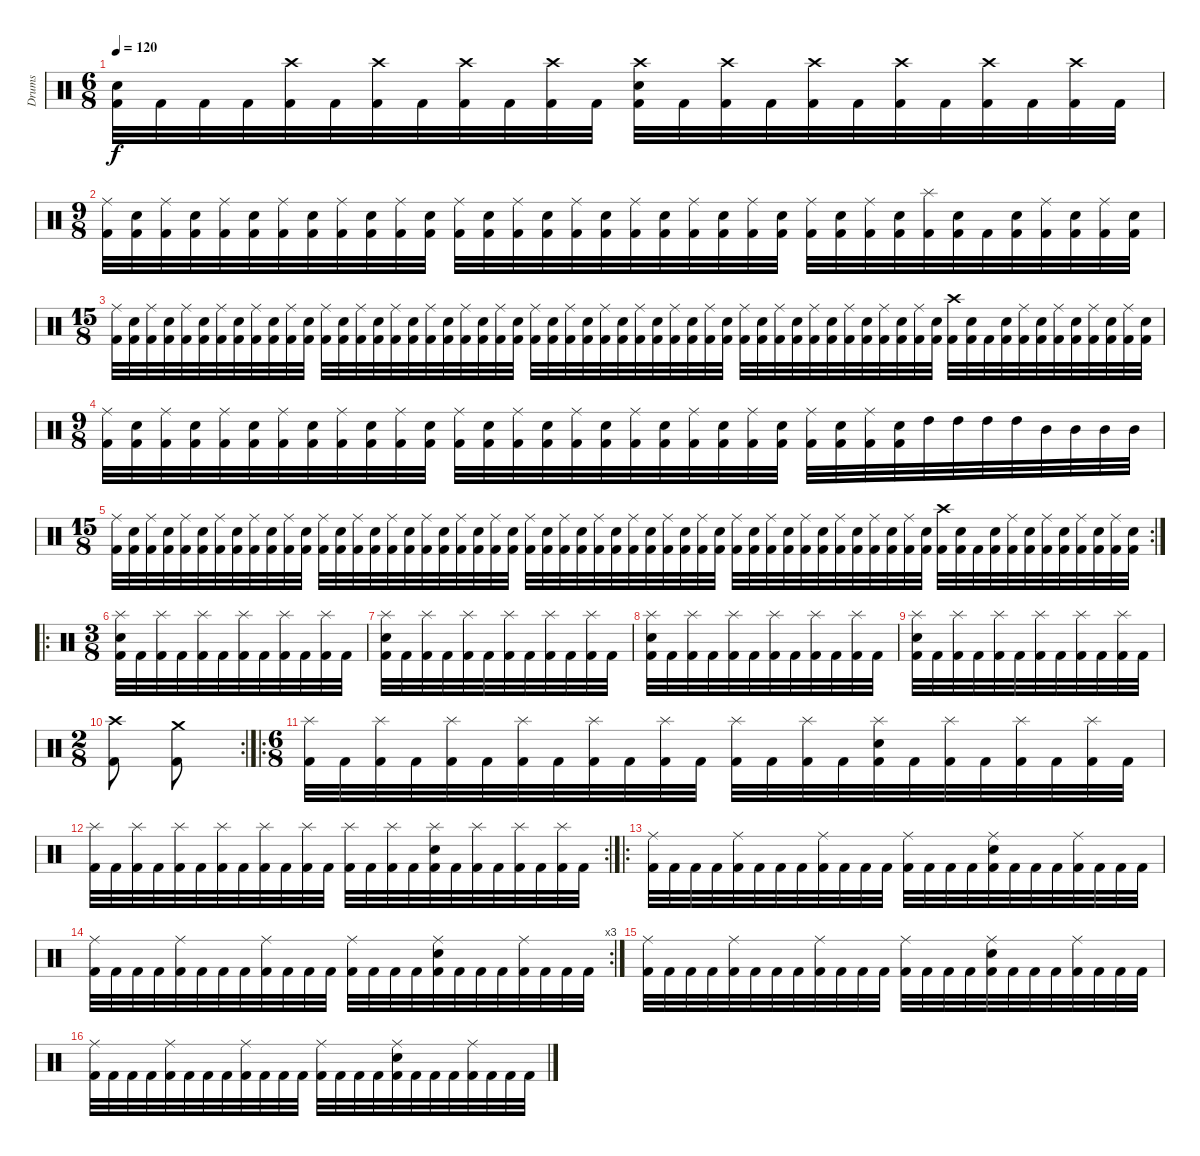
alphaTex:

\track ("Drums" "Drums") {instrument percussion}
\staff {score}
\articulation defaults
\ts (6 8)
\tempo 120
\clef neutral
\ks c
("Snare (hit) 2" "Kick (hit) 2").32{dy f} "Kick (hit) 2".32 "Kick (hit) 2".32 "Kick (hit) 2".32 ("Crash high (hit)" "Kick (hit) 2").32 "Kick (hit) 2".32 ("Crash high (hit)" "Kick (hit) 2").32 "Kick (hit) 2".32 ("Crash high (hit)" "Kick (hit) 2").32 "Kick (hit) 2".32 ("Crash high (hit)" "Kick (hit) 2").32 "Kick (hit) 2".32 ("Crash high (hit)" "Snare (hit) 2" "Kick (hit) 2").32 "Kick (hit) 2".32 ("Crash high (hit)" "Kick (hit) 2").32 "Kick (hit) 2".32 ("Crash high (hit)" "Kick (hit) 2").32 "Kick (hit) 2".32 ("Crash high (hit)" "Kick (hit) 2").32 "Kick (hit) 2".32 ("Crash high (hit)" "Kick (hit) 2").32 "Kick (hit) 2".32 ("Crash high (hit)" "Kick (hit) 2").32 "Kick (hit) 2".32 |
\ts (9 8)
("Ride (middle)" "Kick (hit) 2").32 ("Snare (hit) 2" "Kick (hit) 2").32 ("Ride (middle)" "Kick (hit) 2").32 ("Snare (hit) 2" "Kick (hit) 2").32 ("Ride (middle)" "Kick (hit) 2").32 ("Snare (hit) 2" "Kick (hit) 2").32 ("Ride (middle)" "Kick (hit) 2").32 ("Snare (hit) 2" "Kick (hit) 2").32 ("Ride (middle)" "Kick (hit) 2").32 ("Snare (hit) 2" "Kick (hit) 2").32 ("Ride (middle)" "Kick (hit) 2").32 ("Snare (hit) 2" "Kick (hit) 2").32 ("Ride (middle)" "Kick (hit) 2").32 ("Snare (hit) 2" "Kick (hit) 2").32 ("Ride (middle)" "Kick (hit) 2").32 ("Snare (hit) 2" "Kick (hit) 2").32 ("Ride (middle)" "Kick (hit) 2").32 ("Snare (hit) 2" "Kick (hit) 2").32 ("Ride (middle)" "Kick (hit) 2").32 ("Snare (hit) 2" "Kick (hit) 2").32 ("Ride (middle)" "Kick (hit) 2").32 ("Snare (hit) 2" "Kick (hit) 2").32 ("Ride (middle)" "Kick (hit) 2").32 ("Snare (hit) 2" "Kick (hit) 2").32 ("Ride (middle)" "Kick (hit) 2").32 ("Snare (hit) 2" "Kick (hit) 2").32 ("Ride (middle)" "Kick (hit) 2").32 ("Snare (hit) 2" "Kick (hit) 2").32 ("Splash (hit)" "Kick (hit) 2").32 ("Snare (hit) 2" "Kick (hit) 2").32 "Kick (hit) 2".32 ("Snare (hit) 2" "Kick (hit) 2").32 ("Ride (middle)" "Kick (hit) 2").32 ("Snare (hit) 2" "Kick (hit) 2").32 ("Ride (middle)" "Kick (hit) 2").32 ("Snare (hit) 2" "Kick (hit) 2").32 |
\ts (15 8)
("Ride (middle)" "Kick (hit) 2").32 ("Snare (hit) 2" "Kick (hit) 2").32 ("Ride (middle)" "Kick (hit) 2").32 ("Snare (hit) 2" "Kick (hit) 2").32 ("Ride (middle)" "Kick (hit) 2").32 ("Snare (hit) 2" "Kick (hit) 2").32 ("Ride (middle)" "Kick (hit) 2").32 ("Snare (hit) 2" "Kick (hit) 2").32 ("Ride (middle)" "Kick (hit) 2").32 ("Snare (hit) 2" "Kick (hit) 2").32 ("Ride (middle)" "Kick (hit) 2").32 ("Snare (hit) 2" "Kick (hit) 2").32 ("Ride (middle)" "Kick (hit) 2").32 ("Snare (hit) 2" "Kick (hit) 2").32 ("Ride (middle)" "Kick (hit) 2").32 ("Snare (hit) 2" "Kick (hit) 2").32 ("Ride (middle)" "Kick (hit) 2").32 ("Snare (hit) 2" "Kick (hit) 2").32 ("Ride (middle)" "Kick (hit) 2").32 ("Snare (hit) 2" "Kick (hit) 2").32 ("Ride (middle)" "Kick (hit) 2").32 ("Snare (hit) 2" "Kick (hit) 2").32 ("Ride (middle)" "Kick (hit) 2").32 ("Snare (hit) 2" "Kick (hit) 2").32 ("Ride (middle)" "Kick (hit) 2").32 ("Snare (hit) 2" "Kick (hit) 2").32 ("Ride (middle)" "Kick (hit) 2").32 ("Snare (hit) 2" "Kick (hit) 2").32 ("Ride (middle)" "Kick (hit) 2").32 ("Snare (hit) 2" "Kick (hit) 2").32 ("Ride (middle)" "Kick (hit) 2").32 ("Snare (hit) 2" "Kick (hit) 2").32 ("Ride (middle)" "Kick (hit) 2").32 ("Snare (hit) 2" "Kick (hit) 2").32 ("Ride (middle)" "Kick (hit) 2").32 ("Snare (hit) 2" "Kick (hit) 2").32 ("Ride (middle)" "Kick (hit) 2").32 ("Snare (hit) 2" "Kick (hit) 2").32 ("Ride (middle)" "Kick (hit) 2").32 ("Snare (hit) 2" "Kick (hit) 2").32 ("Ride (middle)" "Kick (hit) 2").32 ("Snare (hit) 2" "Kick (hit) 2").32 ("Ride (middle)" "Kick (hit) 2").32 ("Snare (hit) 2" "Kick (hit) 2").32 ("Ride (middle)" "Kick (hit) 2").32 ("Snare (hit) 2" "Kick (hit) 2").32 ("Ride (middle)" "Kick (hit) 2").32 ("Snare (hit) 2" "Kick (hit) 2").32 ("Crash high (hit)" "Kick (hit) 2").32 ("Snare (hit) 2" "Kick (hit) 2").32 "Kick (hit) 2".32 ("Snare (hit) 2" "Kick (hit) 2").32 ("Ride (middle)" "Kick (hit) 2").32 ("Snare (hit) 2" "Kick (hit) 2").32 ("Ride (middle)" "Kick (hit) 2").32 ("Snare (hit) 2" "Kick (hit) 2").32 ("Ride (middle)" "Kick (hit) 2").32 ("Snare (hit) 2" "Kick (hit) 2").32 ("Ride (middle)" "Kick (hit) 2").32 ("Snare (hit) 2" "Kick (hit) 2").32 |
\ts (9 8)
("Ride (middle)" "Kick (hit) 2").32 ("Snare (hit) 2" "Kick (hit) 2").32 ("Ride (middle)" "Kick (hit) 2").32 ("Snare (hit) 2" "Kick (hit) 2").32 ("Ride (middle)" "Kick (hit) 2").32 ("Snare (hit) 2" "Kick (hit) 2").32 ("Ride (middle)" "Kick (hit) 2").32 ("Snare (hit) 2" "Kick (hit) 2").32 ("Ride (middle)" "Kick (hit) 2").32 ("Snare (hit) 2" "Kick (hit) 2").32 ("Ride (middle)" "Kick (hit) 2").32 ("Snare (hit) 2" "Kick (hit) 2").32 ("Ride (middle)" "Kick (hit) 2").32 ("Snare (hit) 2" "Kick (hit) 2").32 ("Ride (middle)" "Kick (hit) 2").32 ("Snare (hit) 2" "Kick (hit) 2").32 ("Ride (middle)" "Kick (hit) 2").32 ("Snare (hit) 2" "Kick (hit) 2").32 ("Ride (middle)" "Kick (hit) 2").32 ("Snare (hit) 2" "Kick (hit) 2").32 ("Ride (middle)" "Kick (hit) 2").32 ("Snare (hit) 2" "Kick (hit) 2").32 ("Ride (middle)" "Kick (hit) 2").32 ("Snare (hit) 2" "Kick (hit) 2").32 ("Ride (middle)" "Kick (hit) 2").32 ("Snare (hit) 2" "Kick (hit) 2").32 ("Ride (middle)" "Kick (hit) 2").32 ("Snare (hit) 2" "Kick (hit) 2").32 "High Tom (hit)".32 "High Tom (hit)".32 "High Tom (hit)".32 "High Tom (hit)".32 "Mid Tom (hit)".32 "Mid Tom (hit)".32 "Mid Tom (hit)".32 "Mid Tom (hit)".32 |
\rc 2
\ts (15 8)
("Ride (middle)" "Kick (hit) 2").32 ("Snare (hit) 2" "Kick (hit) 2").32 ("Ride (middle)" "Kick (hit) 2").32 ("Snare (hit) 2" "Kick (hit) 2").32 ("Ride (middle)" "Kick (hit) 2").32 ("Snare (hit) 2" "Kick (hit) 2").32 ("Ride (middle)" "Kick (hit) 2").32 ("Snare (hit) 2" "Kick (hit) 2").32 ("Ride (middle)" "Kick (hit) 2").32 ("Snare (hit) 2" "Kick (hit) 2").32 ("Ride (middle)" "Kick (hit) 2").32 ("Snare (hit) 2" "Kick (hit) 2").32 ("Ride (middle)" "Kick (hit) 2").32 ("Snare (hit) 2" "Kick (hit) 2").32 ("Ride (middle)" "Kick (hit) 2").32 ("Snare (hit) 2" "Kick (hit) 2").32 ("Ride (middle)" "Kick (hit) 2").32 ("Snare (hit) 2" "Kick (hit) 2").32 ("Ride (middle)" "Kick (hit) 2").32 ("Snare (hit) 2" "Kick (hit) 2").32 ("Ride (middle)" "Kick (hit) 2").32 ("Snare (hit) 2" "Kick (hit) 2").32 ("Ride (middle)" "Kick (hit) 2").32 ("Snare (hit) 2" "Kick (hit) 2").32 ("Ride (middle)" "Kick (hit) 2").32 ("Snare (hit) 2" "Kick (hit) 2").32 ("Ride (middle)" "Kick (hit) 2").32 ("Snare (hit) 2" "Kick (hit) 2").32 ("Ride (middle)" "Kick (hit) 2").32 ("Snare (hit) 2" "Kick (hit) 2").32 ("Ride (middle)" "Kick (hit) 2").32 ("Snare (hit) 2" "Kick (hit) 2").32 ("Ride (middle)" "Kick (hit) 2").32 ("Snare (hit) 2" "Kick (hit) 2").32 ("Ride (middle)" "Kick (hit) 2").32 ("Snare (hit) 2" "Kick (hit) 2").32 ("Ride (middle)" "Kick (hit) 2").32 ("Snare (hit) 2" "Kick (hit) 2").32 ("Ride (middle)" "Kick (hit) 2").32 ("Snare (hit) 2" "Kick (hit) 2").32 ("Ride (middle)" "Kick (hit) 2").32 ("Snare (hit) 2" "Kick (hit) 2").32 ("Ride (middle)" "Kick (hit) 2").32 ("Snare (hit) 2" "Kick (hit) 2").32 ("Ride (middle)" "Kick (hit) 2").32 ("Snare (hit) 2" "Kick (hit) 2").32 ("Ride (middle)" "Kick (hit) 2").32 ("Snare (hit) 2" "Kick (hit) 2").32 ("Crash high (hit)" "Kick (hit) 2").32 ("Snare (hit) 2" "Kick (hit) 2").32 "Kick (hit) 2".32 ("Snare (hit) 2" "Kick (hit) 2").32 ("Ride (middle)" "Kick (hit) 2").32 ("Snare (hit) 2" "Kick (hit) 2").32 ("Ride (middle)" "Kick (hit) 2").32 ("Snare (hit) 2" "Kick (hit) 2").32 ("Ride (middle)" "Kick (hit) 2").32 ("Snare (hit) 2" "Kick (hit) 2").32 ("Ride (middle)" "Kick (hit) 2").32 ("Snare (hit) 2" "Kick (hit) 2").32 |
\ro
\ts (3 8)
("Splash (hit)" "Snare (hit) 2" "Kick (hit) 2").32 "Kick (hit) 2".32 ("Splash (hit)" "Kick (hit) 2").32 "Kick (hit) 2".32 ("Splash (hit)" "Kick (hit) 2").32 "Kick (hit) 2".32 ("Splash (hit)" "Kick (hit) 2").32 "Kick (hit) 2".32 ("Splash (hit)" "Kick (hit) 2").32 "Kick (hit) 2".32 ("Splash (hit)" "Kick (hit) 2").32 "Kick (hit) 2".32 |
("Splash (hit)" "Snare (hit) 2" "Kick (hit) 2").32 "Kick (hit) 2".32 ("Splash (hit)" "Kick (hit) 2").32 "Kick (hit) 2".32 ("Splash (hit)" "Kick (hit) 2").32 "Kick (hit) 2".32 ("Splash (hit)" "Kick (hit) 2").32 "Kick (hit) 2".32 ("Splash (hit)" "Kick (hit) 2").32 "Kick (hit) 2".32 ("Splash (hit)" "Kick (hit) 2").32 "Kick (hit) 2".32 |
("Splash (hit)" "Snare (hit) 2" "Kick (hit) 2").32 "Kick (hit) 2".32 ("Splash (hit)" "Kick (hit) 2").32 "Kick (hit) 2".32 ("Splash (hit)" "Kick (hit) 2").32 "Kick (hit) 2".32 ("Splash (hit)" "Kick (hit) 2").32 "Kick (hit) 2".32 ("Splash (hit)" "Kick (hit) 2").32 "Kick (hit) 2".32 ("Splash (hit)" "Kick (hit) 2").32 "Kick (hit) 2".32 |
("Splash (hit)" "Snare (hit) 2" "Kick (hit) 2").32 "Kick (hit) 2".32 ("Splash (hit)" "Kick (hit) 2").32 "Kick (hit) 2".32 ("Splash (hit)" "Kick (hit) 2").32 "Kick (hit) 2".32 ("Splash (hit)" "Kick (hit) 2").32 "Kick (hit) 2".32 ("Splash (hit)" "Kick (hit) 2").32 "Kick (hit) 2".32 ("Splash (hit)" "Kick (hit) 2").32 "Kick (hit) 2".32 |
\rc 2
\ts (2 8)
("Crash high (hit)" "Kick (hit) 2").8 ("Crash medium (hit)" "Kick (hit) 2").8 |
\ro
\ts (6 8)
("Splash (hit)" "Kick (hit) 2").32 "Kick (hit) 2".32 ("Splash (hit)" "Kick (hit) 2").32 "Kick (hit) 2".32 ("Splash (hit)" "Kick (hit) 2").32 "Kick (hit) 2".32 ("Splash (hit)" "Kick (hit) 2").32 "Kick (hit) 2".32 ("Splash (hit)" "Kick (hit) 2").32 "Kick (hit) 2".32 ("Splash (hit)" "Kick (hit) 2").32 "Kick (hit) 2".32 ("Splash (hit)" "Kick (hit) 2").32 "Kick (hit) 2".32 ("Splash (hit)" "Kick (hit) 2").32 "Kick (hit) 2".32 ("Splash (hit)" "Snare (hit) 2" "Kick (hit) 2").32 "Kick (hit) 2".32 ("Splash (hit)" "Kick (hit) 2").32 "Kick (hit) 2".32 ("Splash (hit)" "Kick (hit) 2").32 "Kick (hit) 2".32 ("Splash (hit)" "Kick (hit) 2").32 "Kick (hit) 2".32 |
\rc 2
("Splash (hit)" "Kick (hit) 2").32 "Kick (hit) 2".32 ("Splash (hit)" "Kick (hit) 2").32 "Kick (hit) 2".32 ("Splash (hit)" "Kick (hit) 2").32 "Kick (hit) 2".32 ("Splash (hit)" "Kick (hit) 2").32 "Kick (hit) 2".32 ("Splash (hit)" "Kick (hit) 2").32 "Kick (hit) 2".32 ("Splash (hit)" "Kick (hit) 2").32 "Kick (hit) 2".32 ("Splash (hit)" "Kick (hit) 2").32 "Kick (hit) 2".32 ("Splash (hit)" "Kick (hit) 2").32 "Kick (hit) 2".32 ("Splash (hit)" "Snare (hit) 2" "Kick (hit) 2").32 "Kick (hit) 2".32 ("Splash (hit)" "Kick (hit) 2").32 "Kick (hit) 2".32 ("Splash (hit)" "Kick (hit) 2").32 "Kick (hit) 2".32 ("Splash (hit)" "Kick (hit) 2").32 "Kick (hit) 2".32 |
\ro
("Ride (middle)" "Kick (hit) 2").32 "Kick (hit) 2".32 "Kick (hit) 2".32 "Kick (hit) 2".32 ("Ride (middle)" "Kick (hit) 2").32 "Kick (hit) 2".32 "Kick (hit) 2".32 "Kick (hit) 2".32 ("Ride (middle)" "Kick (hit) 2").32 "Kick (hit) 2".32 "Kick (hit) 2".32 "Kick (hit) 2".32 ("Ride (middle)" "Kick (hit) 2").32 "Kick (hit) 2".32 "Kick (hit) 2".32 "Kick (hit) 2".32 ("Ride (middle)" "Snare (hit) 2" "Kick (hit) 2").32 "Kick (hit) 2".32 "Kick (hit) 2".32 "Kick (hit) 2".32 ("Ride (middle)" "Kick (hit) 2").32 "Kick (hit) 2".32 "Kick (hit) 2".32 "Kick (hit) 2".32 |
\rc 3
("Ride (middle)" "Kick (hit) 2").32 "Kick (hit) 2".32 "Kick (hit) 2".32 "Kick (hit) 2".32 ("Ride (middle)" "Kick (hit) 2").32 "Kick (hit) 2".32 "Kick (hit) 2".32 "Kick (hit) 2".32 ("Ride (middle)" "Kick (hit) 2").32 "Kick (hit) 2".32 "Kick (hit) 2".32 "Kick (hit) 2".32 ("Ride (middle)" "Kick (hit) 2").32 "Kick (hit) 2".32 "Kick (hit) 2".32 "Kick (hit) 2".32 ("Ride (middle)" "Snare (hit) 2" "Kick (hit) 2").32 "Kick (hit) 2".32 "Kick (hit) 2".32 "Kick (hit) 2".32 ("Ride (middle)" "Kick (hit) 2").32 "Kick (hit) 2".32 "Kick (hit) 2".32 "Kick (hit) 2".32 |
("Ride (middle)" "Kick (hit) 2").32 "Kick (hit) 2".32 "Kick (hit) 2".32 "Kick (hit) 2".32 ("Ride (middle)" "Kick (hit) 2").32 "Kick (hit) 2".32 "Kick (hit) 2".32 "Kick (hit) 2".32 ("Ride (middle)" "Kick (hit) 2").32 "Kick (hit) 2".32 "Kick (hit) 2".32 "Kick (hit) 2".32 ("Ride (middle)" "Kick (hit) 2").32 "Kick (hit) 2".32 "Kick (hit) 2".32 "Kick (hit) 2".32 ("Ride (middle)" "Snare (hit) 2" "Kick (hit) 2").32 "Kick (hit) 2".32 "Kick (hit) 2".32 "Kick (hit) 2".32 ("Ride (middle)" "Kick (hit) 2").32 "Kick (hit) 2".32 "Kick (hit) 2".32 "Kick (hit) 2".32 |
("Ride (middle)" "Kick (hit) 2").32 "Kick (hit) 2".32 "Kick (hit) 2".32 "Kick (hit) 2".32 ("Ride (middle)" "Kick (hit) 2").32 "Kick (hit) 2".32 "Kick (hit) 2".32 "Kick (hit) 2".32 ("Ride (middle)" "Kick (hit) 2").32 "Kick (hit) 2".32 "Kick (hit) 2".32 "Kick (hit) 2".32 ("Ride (middle)" "Kick (hit) 2").32 "Kick (hit) 2".32 "Kick (hit) 2".32 "Kick (hit) 2".32 ("Ride (middle)" "Snare (hit) 2" "Kick (hit) 2").32 "Kick (hit) 2".32 "Kick (hit) 2".32 "Kick (hit) 2".32 ("Ride (middle)" "Kick (hit) 2").32 "Kick (hit) 2".32 "Kick (hit) 2".32 "Kick (hit) 2".32
